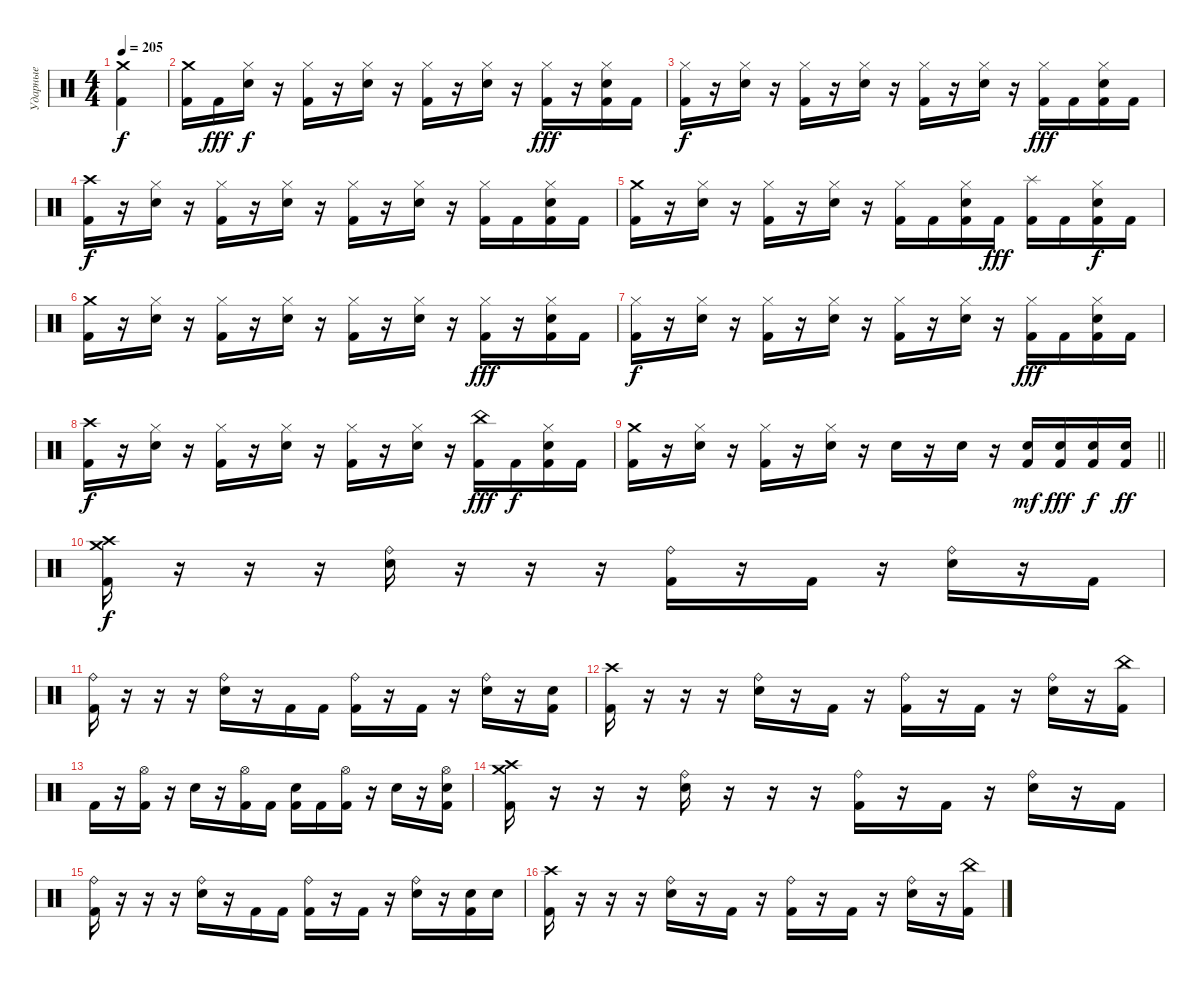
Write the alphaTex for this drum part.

\track ("Ударные" "Ударные") {instrument percussion}
\staff {score}
\articulation defaults
\ts (4 4)
\tempo 205
\clef neutral
\ks c
("Crash medium (hit)" "Kick (hit) 2").4{dy f} |
("Crash medium (hit)" "Kick (hit) 2").16 "Kick (hit) 2".16{dy fff} ("Hi-Hat (closed)" "Snare (hit) 2").16{dy f} r.16 ("Hi-Hat (closed)" "Kick (hit) 2").16 r.16 ("Hi-Hat (closed)" "Snare (hit) 2").16 r.16 ("Hi-Hat (closed)" "Kick (hit) 2").16 r.16 ("Hi-Hat (closed)" "Snare (hit) 2").16 r.16 ("Hi-Hat (closed)" "Kick (hit) 2").16{dy fff} r.16 ("Hi-Hat (closed)" "Snare (hit) 2" "Kick (hit) 2").16 "Kick (hit) 2".16 |
("Hi-Hat (closed)" "Kick (hit) 2").16{dy f} r.16 ("Hi-Hat (closed)" "Snare (hit) 2").16 r.16 ("Hi-Hat (closed)" "Kick (hit) 2").16 r.16 ("Hi-Hat (closed)" "Snare (hit) 2").16 r.16 ("Hi-Hat (closed)" "Kick (hit) 2").16 r.16 ("Hi-Hat (closed)" "Snare (hit) 2").16 r.16 ("Hi-Hat (closed)" "Kick (hit) 2").16{dy fff} "Kick (hit) 2".16 ("Hi-Hat (closed)" "Snare (hit) 2" "Kick (hit) 2").16 "Kick (hit) 2".16 |
("Crash high (hit)" "Kick (hit) 2").16{dy f} r.16 ("Hi-Hat (closed)" "Snare (hit) 2").16 r.16 ("Hi-Hat (closed)" "Kick (hit) 2").16 r.16 ("Hi-Hat (closed)" "Snare (hit) 2").16 r.16 ("Hi-Hat (closed)" "Kick (hit) 2").16 r.16 ("Hi-Hat (closed)" "Snare (hit) 2").16 r.16 ("Hi-Hat (closed)" "Kick (hit) 2").16 "Kick (hit) 2".16 ("Hi-Hat (closed)" "Snare (hit) 2" "Kick (hit) 2").16 "Kick (hit) 2".16 |
("Crash medium (hit)" "Kick (hit) 2").16 r.16 ("Hi-Hat (closed)" "Snare (hit) 2").16 r.16 ("Hi-Hat (closed)" "Kick (hit) 2").16 r.16 ("Hi-Hat (closed)" "Snare (hit) 2").16 r.16 ("Hi-Hat (closed)" "Kick (hit) 2").16 "Kick (hit) 2".16 ("Hi-Hat (closed)" "Snare (hit) 2" "Kick (hit) 2").16 "Kick (hit) 2".16{dy fff} ("Splash (hit)" "Kick (hit) 2").16 "Kick (hit) 2".16 ("Hi-Hat (closed)" "Snare (hit) 2" "Kick (hit) 2").16{dy f} "Kick (hit) 2".16 |
("Crash medium (hit)" "Kick (hit) 2").16 r.16 ("Hi-Hat (closed)" "Snare (hit) 2").16 r.16 ("Hi-Hat (closed)" "Kick (hit) 2").16 r.16 ("Hi-Hat (closed)" "Snare (hit) 2").16 r.16 ("Hi-Hat (closed)" "Kick (hit) 2").16 r.16 ("Hi-Hat (closed)" "Snare (hit) 2").16 r.16 ("Hi-Hat (closed)" "Kick (hit) 2").16{dy fff} r.16 ("Hi-Hat (closed)" "Snare (hit) 2" "Kick (hit) 2").16 "Kick (hit) 2".16 |
("Hi-Hat (closed)" "Kick (hit) 2").16{dy f} r.16 ("Hi-Hat (closed)" "Snare (hit) 2").16 r.16 ("Hi-Hat (closed)" "Kick (hit) 2").16 r.16 ("Hi-Hat (closed)" "Snare (hit) 2").16 r.16 ("Hi-Hat (closed)" "Kick (hit) 2").16 r.16 ("Hi-Hat (closed)" "Snare (hit) 2").16 r.16 ("Hi-Hat (closed)" "Kick (hit) 2").16{dy fff} "Kick (hit) 2".16 ("Hi-Hat (closed)" "Snare (hit) 2" "Kick (hit) 2").16 "Kick (hit) 2".16 |
("Crash high (hit)" "Kick (hit) 2").16{dy f} r.16 ("Hi-Hat (closed)" "Snare (hit) 2").16 r.16 ("Hi-Hat (closed)" "Kick (hit) 2").16 r.16 ("Hi-Hat (closed)" "Snare (hit) 2").16 r.16 ("Hi-Hat (closed)" "Kick (hit) 2").16 r.16 ("Hi-Hat (closed)" "Snare (hit) 2").16 r.16 ("China (hit)" "Kick (hit) 2").16{dy fff} "Kick (hit) 2".16{dy f} ("Hi-Hat (closed)" "Snare (hit) 2" "Kick (hit) 2").16 "Kick (hit) 2".16 |
\barLineRight lightlight
("Crash medium (hit)" "Kick (hit) 2").16 r.16 ("Hi-Hat (closed)" "Snare (hit) 2").16 r.16 ("Hi-Hat (closed)" "Kick (hit) 2").16 r.16 ("Hi-Hat (closed)" "Snare (hit) 2").16 r.16 "Snare (hit) 2".16 r.16 "Snare (hit) 2".16 r.16 ("Snare (hit) 2" "Kick (hit) 2").16{dy mf} ("Snare (hit) 2" "Kick (hit) 2").16{dy fff} ("Snare (hit) 2" "Kick (hit) 2").16{dy f} ("Snare (hit) 2" "Kick (hit) 2").16{dy ff} |
("Crash medium (hit)" "Crash high (hit)" "Kick (hit) 2").16{dy f} r.16 r.16 r.16 ("Ride (bell)" "Snare (hit) 2").16 r.16 r.16 r.16 ("Ride (bell)" "Kick (hit) 2").16 r.16 "Kick (hit) 2".16 r.16 ("Ride (bell)" "Snare (hit) 2").16 r.16 "Kick (hit) 2".16 |
("Ride (bell)" "Kick (hit) 2").16 r.16 r.16 r.16 ("Ride (bell)" "Snare (hit) 2").16 r.16 "Kick (hit) 2".16 "Kick (hit) 2".16 ("Ride (bell)" "Kick (hit) 2").16 r.16 "Kick (hit) 2".16 r.16 ("Ride (bell)" "Snare (hit) 2").16 r.16 ("Snare (hit) 2" "Kick (hit) 2").16 |
("Crash high (hit)" "Kick (hit) 2").16 r.16 r.16 r.16 ("Ride (bell)" "Snare (hit) 2").16 r.16 "Kick (hit) 2".16 r.16 ("Ride (bell)" "Kick (hit) 2").16 r.16 "Kick (hit) 2".16 r.16 ("Ride (bell)" "Snare (hit) 2").16 r.16 ("China (hit)" "Kick (hit) 2").16 |
"Kick (hit) 2".16 r.16 ("Hi-Hat (open)" "Kick (hit) 2").16 r.16 "Snare (hit) 2".16 r.16 ("Hi-Hat (open)" "Kick (hit) 2").16 "Kick (hit) 2".16 ("Snare (hit) 2" "Kick (hit) 2").16 "Kick (hit) 2".16 ("Hi-Hat (open)" "Kick (hit) 2").16 r.16 "Snare (hit) 2".16 r.16 ("Hi-Hat (open)" "Snare (hit) 2" "Kick (hit) 2").16 |
("Crash medium (hit)" "Crash high (hit)" "Kick (hit) 2").16 r.16 r.16 r.16 ("Ride (bell)" "Snare (hit) 2").16 r.16 r.16 r.16 ("Ride (bell)" "Kick (hit) 2").16 r.16 "Kick (hit) 2".16 r.16 ("Ride (bell)" "Snare (hit) 2").16 r.16 "Kick (hit) 2".16 |
("Ride (bell)" "Kick (hit) 2").16 r.16 r.16 r.16 ("Ride (bell)" "Snare (hit) 2").16 r.16 "Kick (hit) 2".16 "Kick (hit) 2".16 ("Ride (bell)" "Kick (hit) 2").16 r.16 "Kick (hit) 2".16 r.16 ("Ride (bell)" "Snare (hit) 2").16 r.16 ("Snare (hit) 2" "Kick (hit) 2").16 "Snare (hit) 2".16 |
("Crash high (hit)" "Kick (hit) 2").16 r.16 r.16 r.16 ("Ride (bell)" "Snare (hit) 2").16 r.16 "Kick (hit) 2".16 r.16 ("Ride (bell)" "Kick (hit) 2").16 r.16 "Kick (hit) 2".16 r.16 ("Ride (bell)" "Snare (hit) 2").16 r.16 ("China (hit)" "Kick (hit) 2").16
